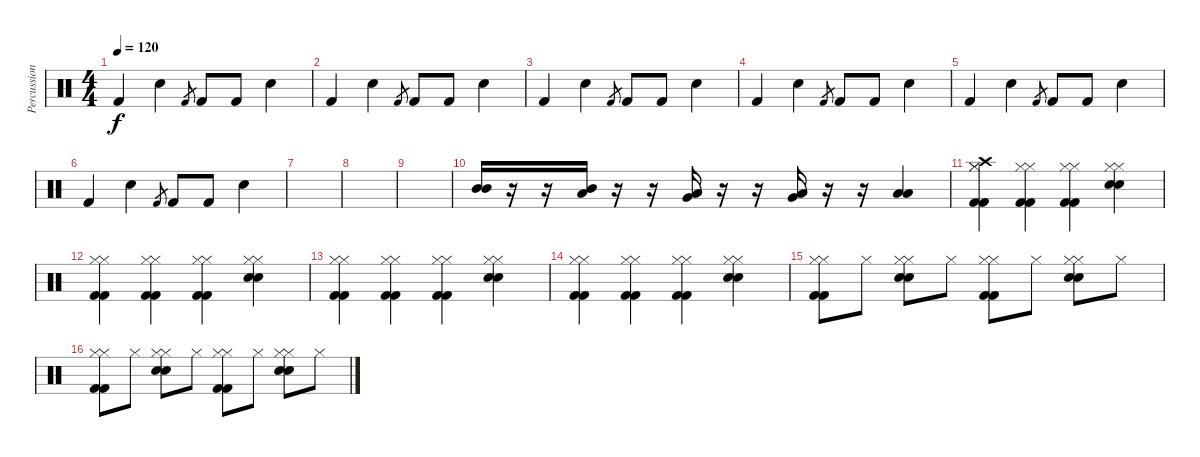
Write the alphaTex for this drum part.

\track ("Percussion" "Percussion") {instrument percussion}
\staff {score}
\articulation defaults
\ts (4 4)
\tempo 120
\clef neutral
\ks c "Kick (hit) 2".4{dy f} "Hand Clap (hit)".4 "Kick (hit) 2".8{gr} "Kick (hit) 2".8 "Kick (hit) 2".8 "Hand Clap (hit)".4
|
"Kick (hit) 2".4 "Hand Clap (hit)".4 "Kick (hit) 2".8{gr} "Kick (hit) 2".8 "Kick (hit) 2".8 "Hand Clap (hit)".4 |
"Kick (hit) 2".4 "Hand Clap (hit)".4 "Kick (hit) 2".8{gr} "Kick (hit) 2".8 "Kick (hit) 2".8 "Hand Clap (hit)".4 |
"Kick (hit) 2".4 "Hand Clap (hit)".4 "Kick (hit) 2".8{gr} "Kick (hit) 2".8 "Kick (hit) 2".8 "Hand Clap (hit)".4 |
"Kick (hit) 2".4 "Hand Clap (hit)".4 "Kick (hit) 2".8{gr} "Kick (hit) 2".8 "Kick (hit) 2".8 "Hand Clap (hit)".4 |
"Kick (hit) 2".4 "Hand Clap (hit)".4 "Kick (hit) 2".8{gr} "Kick (hit) 2".8 "Kick (hit) 2".8 "Hand Clap (hit)".4 |
|
|
|
("Mid Tom (hit)" "Mid Tom (hit)").16 r.16 r.16 ("Mid Tom (hit)" "Low Tom (hit)").16 r.16 r.16 ("Low Tom (hit)" "Very Low Tom (hit)").16 r.16 r.16 ("Very Low Tom (hit)" "Low Floor Tom (hit)").16 r.16 r.16 ("Low Floor Tom (hit)" "Low Floor Tom (hit)").4 |
("Kick (hit) 2" "Kick (hit) 2" "Hi-Hat (closed)" "Hi-Hat (closed)" "Crash high (hit)").4 ("Kick (hit) 2" "Kick (hit) 2" "Hi-Hat (closed)" "Hi-Hat (closed)").4 ("Kick (hit) 2" "Kick (hit) 2" "Hi-Hat (closed)" "Hi-Hat (closed)").4 ("Electric Snare (hit)" "Electric Snare (hit)" "Hi-Hat (closed)" "Hi-Hat (closed)").4 |
("Kick (hit) 2" "Kick (hit) 2" "Hi-Hat (closed)" "Hi-Hat (closed)").4 ("Kick (hit) 2" "Kick (hit) 2" "Hi-Hat (closed)" "Hi-Hat (closed)").4 ("Kick (hit) 2" "Kick (hit) 2" "Hi-Hat (closed)" "Hi-Hat (closed)").4 ("Electric Snare (hit)" "Electric Snare (hit)" "Hi-Hat (closed)" "Hi-Hat (closed)").4 |
("Kick (hit) 2" "Kick (hit) 2" "Hi-Hat (closed)" "Hi-Hat (closed)").4 ("Kick (hit) 2" "Kick (hit) 2" "Hi-Hat (closed)" "Hi-Hat (closed)").4 ("Kick (hit) 2" "Kick (hit) 2" "Hi-Hat (closed)" "Hi-Hat (closed)").4 ("Electric Snare (hit)" "Electric Snare (hit)" "Hi-Hat (closed)" "Hi-Hat (closed)").4 |
("Kick (hit) 2" "Kick (hit) 2" "Hi-Hat (closed)" "Hi-Hat (closed)").4 ("Kick (hit) 2" "Kick (hit) 2" "Hi-Hat (closed)" "Hi-Hat (closed)").4 ("Kick (hit) 2" "Kick (hit) 2" "Hi-Hat (closed)" "Hi-Hat (closed)").4 ("Electric Snare (hit)" "Electric Snare (hit)" "Hi-Hat (closed)" "Hi-Hat (closed)").4 |
("Kick (hit) 2" "Kick (hit) 2" "Hi-Hat (closed)" "Hi-Hat (closed)").8 "Hi-Hat (closed)".8 ("Electric Snare (hit)" "Electric Snare (hit)" "Hi-Hat (closed)" "Hi-Hat (closed)").8 "Hi-Hat (closed)".8 ("Kick (hit) 2" "Kick (hit) 2" "Hi-Hat (closed)" "Hi-Hat (closed)").8 "Hi-Hat (closed)".8 ("Electric Snare (hit)" "Electric Snare (hit)" "Hi-Hat (closed)" "Hi-Hat (closed)").8 "Hi-Hat (closed)".8 |
("Kick (hit) 2" "Kick (hit) 2" "Hi-Hat (closed)" "Hi-Hat (closed)").8 "Hi-Hat (closed)".8 ("Electric Snare (hit)" "Electric Snare (hit)" "Hi-Hat (closed)" "Hi-Hat (closed)").8 "Hi-Hat (closed)".8 ("Kick (hit) 2" "Kick (hit) 2" "Hi-Hat (closed)" "Hi-Hat (closed)").8 "Hi-Hat (closed)".8 ("Electric Snare (hit)" "Electric Snare (hit)" "Hi-Hat (closed)" "Hi-Hat (closed)").8 "Hi-Hat (closed)".8
